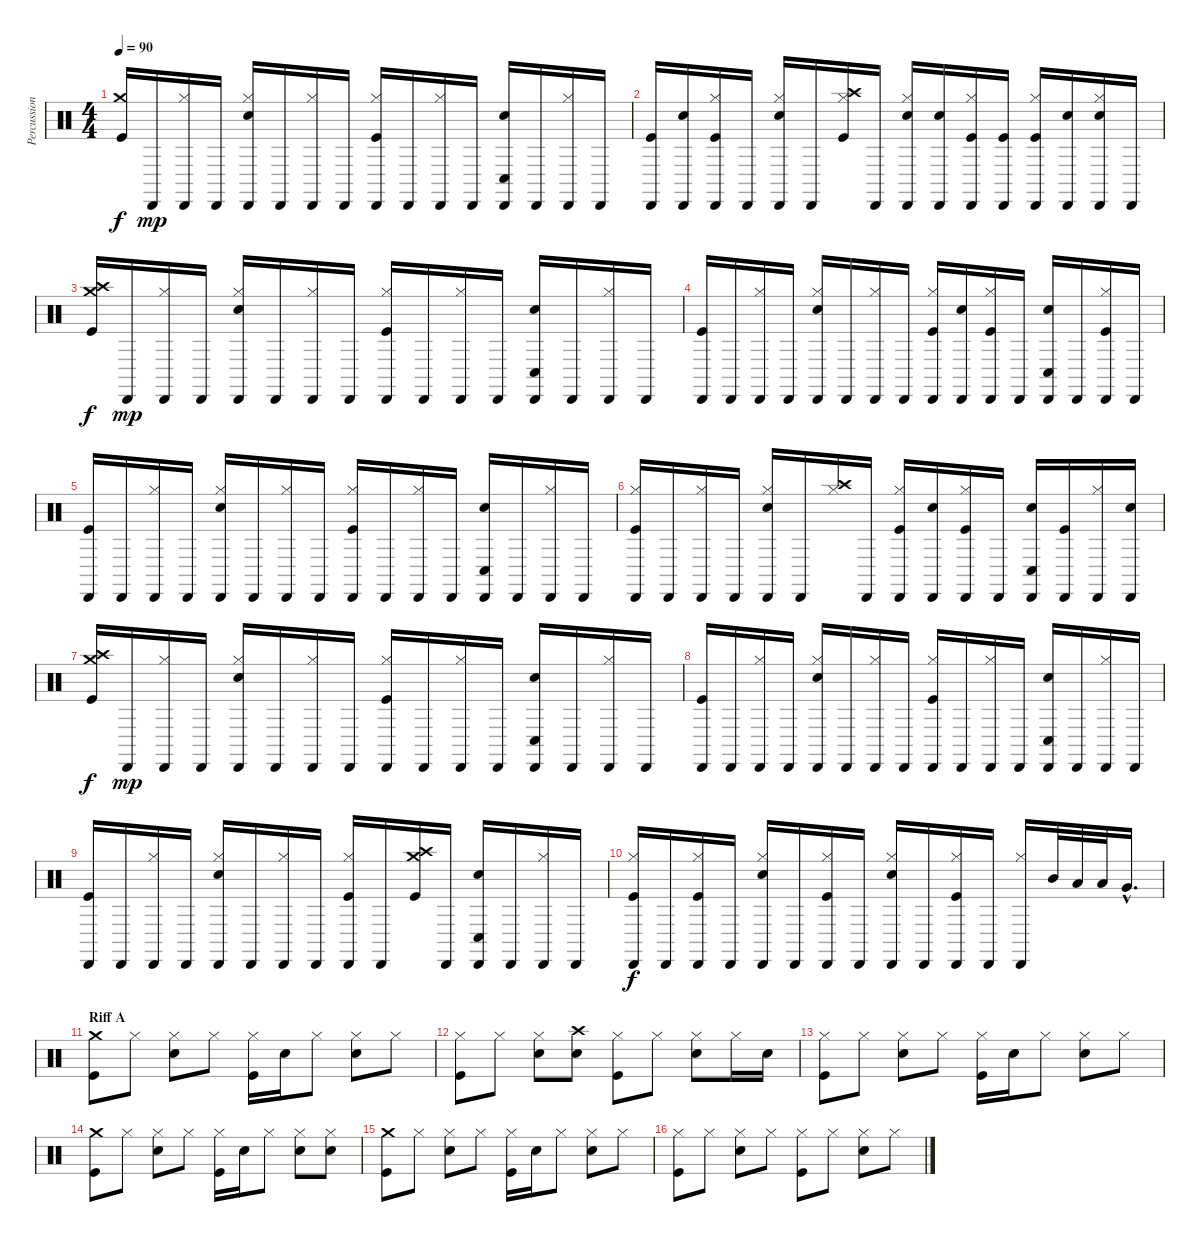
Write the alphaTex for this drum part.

\track ("Percussion (DK 0)" "Percussion") {instrument percussion}
\staff {score}
\articulation defaults
\ts (4 4)
\tempo 90
\clef neutral
\ks c
("Crash medium (hit)" "Kick (hit)").16{dy f} "Cabasa (hit)".16{dy mp} ("Cabasa (hit)" "Hi-Hat (closed)").16 "Cabasa (hit)".16 ("Cabasa (hit)" "Hi-Hat (closed)" "Electric Snare (hit)").16 "Cabasa (hit)".16 ("Cabasa (hit)" "Hi-Hat (closed)").16 "Cabasa (hit)".16 ("Cabasa (hit)" "Hi-Hat (closed)" "Kick (hit)").16 "Cabasa (hit)".16 ("Cabasa (hit)" "Hi-Hat (closed)").16 "Cabasa (hit)".16 ("Cabasa (hit)" "Conga low (hit)" "Electric Snare (hit)").16 "Cabasa (hit)".16 ("Cabasa (hit)" "Hi-Hat (closed)").16 "Cabasa (hit)".16 |
("Cabasa (hit)" "Kick (hit)").16 ("Cabasa (hit)" "Electric Snare (hit)").16 ("Cabasa (hit)" "Hi-Hat (closed)" "Kick (hit)").16 "Cabasa (hit)".16 ("Cabasa (hit)" "Hi-Hat (closed)" "Electric Snare (hit)").16 "Cabasa (hit)".16 ("Crash high (hit)" "Hi-Hat (closed)" "Kick (hit)").16 "Cabasa (hit)".16 ("Cabasa (hit)" "Hi-Hat (closed)" "Electric Snare (hit)").16 ("Cabasa (hit)" "Electric Snare (hit)").16 ("Cabasa (hit)" "Hi-Hat (closed)" "Kick (hit)").16 ("Cabasa (hit)" "Kick (hit)").16 ("Cabasa (hit)" "Hi-Hat (closed)" "Kick (hit)").16 ("Cabasa (hit)" "Electric Snare (hit)").16 ("Cabasa (hit)" "Hi-Hat (closed)" "Electric Snare (hit)").16 "Cabasa (hit)".16 |
("Crash medium (hit)" "Crash high (hit)" "Kick (hit)").16{dy f} "Cabasa (hit)".16{dy mp} ("Cabasa (hit)" "Hi-Hat (closed)").16 "Cabasa (hit)".16 ("Cabasa (hit)" "Hi-Hat (closed)" "Electric Snare (hit)").16 "Cabasa (hit)".16 ("Cabasa (hit)" "Hi-Hat (closed)").16 "Cabasa (hit)".16 ("Cabasa (hit)" "Hi-Hat (closed)" "Kick (hit)").16 "Cabasa (hit)".16 ("Cabasa (hit)" "Hi-Hat (closed)").16 "Cabasa (hit)".16 ("Cabasa (hit)" "Conga low (hit)" "Electric Snare (hit)").16 "Cabasa (hit)".16 ("Cabasa (hit)" "Hi-Hat (closed)").16 "Cabasa (hit)".16 |
("Cabasa (hit)" "Kick (hit)").16 "Cabasa (hit)".16 ("Cabasa (hit)" "Hi-Hat (closed)").16 "Cabasa (hit)".16 ("Cabasa (hit)" "Hi-Hat (closed)" "Electric Snare (hit)").16 "Cabasa (hit)".16 ("Cabasa (hit)" "Hi-Hat (closed)").16 "Cabasa (hit)".16 ("Cabasa (hit)" "Hi-Hat (closed)" "Kick (hit)").16 ("Cabasa (hit)" "Electric Snare (hit)").16 ("Cabasa (hit)" "Hi-Hat (closed)" "Kick (hit)").16 "Cabasa (hit)".16 ("Cabasa (hit)" "Conga low (hit)" "Electric Snare (hit)").16 "Cabasa (hit)".16 ("Cabasa (hit)" "Hi-Hat (closed)" "Kick (hit)").16 "Cabasa (hit)".16 |
("Cabasa (hit)" "Kick (hit)").16 "Cabasa (hit)".16 ("Cabasa (hit)" "Hi-Hat (closed)").16 "Cabasa (hit)".16 ("Cabasa (hit)" "Hi-Hat (closed)" "Electric Snare (hit)").16 "Cabasa (hit)".16 ("Cabasa (hit)" "Hi-Hat (closed)").16 "Cabasa (hit)".16 ("Cabasa (hit)" "Hi-Hat (closed)" "Kick (hit)").16 "Cabasa (hit)".16 ("Cabasa (hit)" "Hi-Hat (closed)").16 "Cabasa (hit)".16 ("Cabasa (hit)" "Conga low (hit)" "Electric Snare (hit)").16 "Cabasa (hit)".16 ("Cabasa (hit)" "Hi-Hat (closed)").16 "Cabasa (hit)".16 |
("Cabasa (hit)" "Hi-Hat (closed)" "Kick (hit)").16 "Cabasa (hit)".16 ("Cabasa (hit)" "Hi-Hat (closed)").16 "Cabasa (hit)".16 ("Cabasa (hit)" "Hi-Hat (closed)" "Electric Snare (hit)").16 "Cabasa (hit)".16 ("Crash high (hit)" "Hi-Hat (closed)").16 "Cabasa (hit)".16 ("Cabasa (hit)" "Hi-Hat (closed)" "Kick (hit)").16 ("Cabasa (hit)" "Electric Snare (hit)").16 ("Cabasa (hit)" "Hi-Hat (closed)" "Kick (hit)").16 "Cabasa (hit)".16 ("Cabasa (hit)" "Conga low (hit)" "Electric Snare (hit)").16 ("Cabasa (hit)" "Kick (hit)").16 ("Cabasa (hit)" "Hi-Hat (closed)").16 ("Cabasa (hit)" "Electric Snare (hit)").16 |
("Crash medium (hit)" "Crash high (hit)" "Kick (hit)").16{dy f} "Cabasa (hit)".16{dy mp} ("Cabasa (hit)" "Hi-Hat (closed)").16 "Cabasa (hit)".16 ("Cabasa (hit)" "Hi-Hat (closed)" "Electric Snare (hit)").16 "Cabasa (hit)".16 ("Cabasa (hit)" "Hi-Hat (closed)").16 "Cabasa (hit)".16 ("Cabasa (hit)" "Hi-Hat (closed)" "Kick (hit)").16 "Cabasa (hit)".16 ("Cabasa (hit)" "Hi-Hat (closed)").16 "Cabasa (hit)".16 ("Cabasa (hit)" "Conga low (hit)" "Electric Snare (hit)").16 "Cabasa (hit)".16 ("Cabasa (hit)" "Hi-Hat (closed)").16 "Cabasa (hit)".16 |
("Cabasa (hit)" "Kick (hit)").16 "Cabasa (hit)".16 ("Cabasa (hit)" "Hi-Hat (closed)").16 "Cabasa (hit)".16 ("Cabasa (hit)" "Hi-Hat (closed)" "Electric Snare (hit)").16 "Cabasa (hit)".16 ("Cabasa (hit)" "Hi-Hat (closed)").16 "Cabasa (hit)".16 ("Cabasa (hit)" "Hi-Hat (closed)" "Kick (hit)").16 "Cabasa (hit)".16 ("Cabasa (hit)" "Hi-Hat (closed)").16 "Cabasa (hit)".16 ("Cabasa (hit)" "Conga low (hit)" "Electric Snare (hit)").16 "Cabasa (hit)".16 ("Cabasa (hit)" "Hi-Hat (closed)").16 "Cabasa (hit)".16 |
("Cabasa (hit)" "Kick (hit)").16 "Cabasa (hit)".16 ("Cabasa (hit)" "Hi-Hat (closed)").16 "Cabasa (hit)".16 ("Cabasa (hit)" "Hi-Hat (closed)" "Electric Snare (hit)").16 "Cabasa (hit)".16 ("Cabasa (hit)" "Hi-Hat (closed)").16 "Cabasa (hit)".16 ("Cabasa (hit)" "Hi-Hat (closed)" "Kick (hit)").16 "Cabasa (hit)".16 ("Crash medium (hit)" "Crash high (hit)" "Kick (hit)").16 "Cabasa (hit)".16 ("Cabasa (hit)" "Conga low (hit)" "Electric Snare (hit)").16 "Cabasa (hit)".16 ("Cabasa (hit)" "Hi-Hat (closed)").16 "Cabasa (hit)".16 |
("Cabasa (hit)" "Hi-Hat (closed)" "Kick (hit)").16{dy f} "Cabasa (hit)".16 ("Cabasa (hit)" "Hi-Hat (closed)" "Kick (hit)").16 "Cabasa (hit)".16 ("Cabasa (hit)" "Hi-Hat (closed)" "Electric Snare (hit)").16 "Cabasa (hit)".16 ("Cabasa (hit)" "Hi-Hat (closed)" "Kick (hit)").16 "Cabasa (hit)".16 ("Cabasa (hit)" "Hi-Hat (closed)" "Electric Snare (hit)").16 "Cabasa (hit)".16 ("Cabasa (hit)" "Hi-Hat (closed)" "Kick (hit)").16 "Cabasa (hit)".16 ("Cabasa (hit)" "Hi-Hat (closed)").16 "Mid Tom (hit)".32 "Low Tom (hit)".32 "Low Tom (hit)".32 "Very Low Tom (hit)"{hac}.16{d} |
\section ("" "Riff A")
("Crash medium (hit)" "Kick (hit)").8 "Hi-Hat (closed)".8 ("Hi-Hat (closed)" "Electric Snare (hit)").8 "Hi-Hat (closed)".8 ("Hi-Hat (closed)" "Kick (hit)").16 "Electric Snare (hit)".16 "Hi-Hat (closed)".8 ("Hi-Hat (closed)" "Electric Snare (hit)").8 "Hi-Hat (closed)".8 |
("Hi-Hat (closed)" "Kick (hit)").8 "Hi-Hat (closed)".8 ("Hi-Hat (closed)" "Electric Snare (hit)").8 ("Crash high (hit)" "Electric Snare (hit)").8 ("Hi-Hat (closed)" "Kick (hit)").8 "Hi-Hat (closed)".8 ("Hi-Hat (closed)" "Electric Snare (hit)").8 "Hi-Hat (closed)".16 "Electric Snare (hit)".16 |
("Hi-Hat (closed)" "Kick (hit)").8 "Hi-Hat (closed)".8 ("Hi-Hat (closed)" "Electric Snare (hit)").8 "Hi-Hat (closed)".8 ("Hi-Hat (closed)" "Kick (hit)").16 "Electric Snare (hit)".16 "Hi-Hat (closed)".8 ("Hi-Hat (closed)" "Electric Snare (hit)").8 "Hi-Hat (closed)".8 |
("Crash medium (hit)" "Kick (hit)").8 "Hi-Hat (closed)".8 ("Hi-Hat (closed)" "Electric Snare (hit)").8 "Hi-Hat (closed)".8 ("Hi-Hat (closed)" "Kick (hit)").16 "Electric Snare (hit)".16 "Hi-Hat (closed)".8 ("Hi-Hat (closed)" "Electric Snare (hit)").8 ("Hi-Hat (closed)" "Electric Snare (hit)").8 |
("Crash medium (hit)" "Kick (hit)").8 "Hi-Hat (closed)".8 ("Hi-Hat (closed)" "Electric Snare (hit)").8 "Hi-Hat (closed)".8 ("Hi-Hat (closed)" "Kick (hit)").16 "Electric Snare (hit)".16 "Hi-Hat (closed)".8 ("Hi-Hat (closed)" "Electric Snare (hit)").8 "Hi-Hat (closed)".8 |
("Hi-Hat (closed)" "Kick (hit)").8 "Hi-Hat (closed)".8 ("Hi-Hat (closed)" "Electric Snare (hit)").8 "Hi-Hat (closed)".8 ("Hi-Hat (closed)" "Kick (hit)").8 "Hi-Hat (closed)".8 ("Hi-Hat (closed)" "Electric Snare (hit)").8 "Hi-Hat (closed)".8
